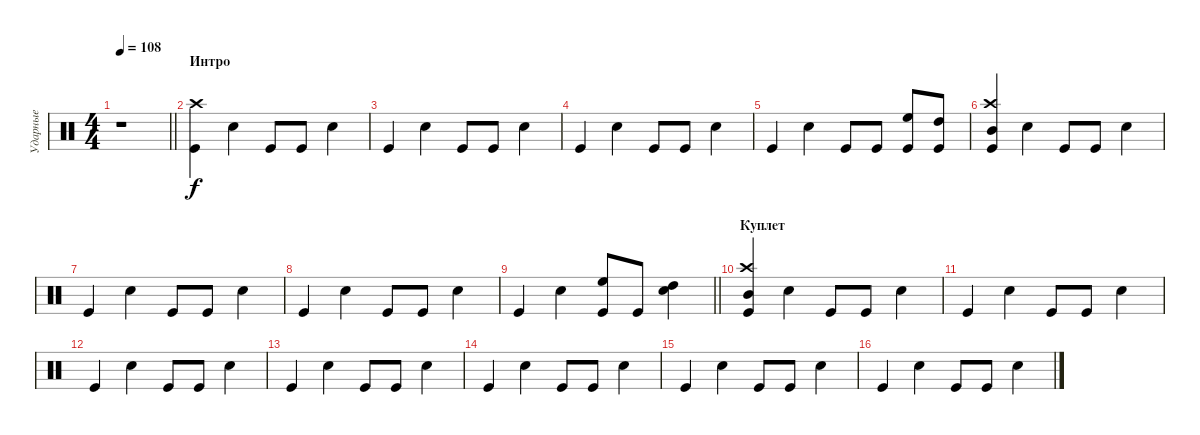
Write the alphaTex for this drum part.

\track ("Ударные" "Ударные") {instrument percussion}
\staff {score}
\articulation defaults
\ts (4 4)
\tempo 108
\clef neutral
\barLineRight lightlight
\ks c
r.1{dy f} |
\section ("" "Интро")
("Kick (hit)" "Crash high (hit)").4 "Snare (hit) 2".4 "Kick (hit)".8 "Kick (hit)".8 "Snare (hit) 2".4 |
"Kick (hit)".4 "Snare (hit) 2".4 "Kick (hit)".8 "Kick (hit)".8 "Snare (hit) 2".4 |
"Kick (hit)".4 "Snare (hit) 2".4 "Kick (hit)".8 "Kick (hit)".8 "Snare (hit) 2".4 |
"Kick (hit)".4 "Snare (hit) 2".4 "Kick (hit)".8 "Kick (hit)".8 ("Kick (hit)" "High Floor Tom (hit)").8 ("Kick (hit)" "High Tom (hit)").8 |
("Kick (hit)" "Mid Tom (hit)" "Crash high (hit)").4 "Snare (hit) 2".4 "Kick (hit)".8 "Kick (hit)".8 "Snare (hit) 2".4 |
"Kick (hit)".4 "Snare (hit) 2".4 "Kick (hit)".8 "Kick (hit)".8 "Snare (hit) 2".4 |
"Kick (hit)".4 "Snare (hit) 2".4 "Kick (hit)".8 "Kick (hit)".8 "Snare (hit) 2".4 |
\barLineRight lightlight "Kick (hit)".4 "Snare (hit) 2".4
("Kick (hit)" "High Floor Tom (hit)").8 "Kick (hit)".8 ("Snare (hit) 2" "High Tom (hit)").4 |
\section ("" "Куплет")
("Kick (hit)" "Mid Tom (hit)" "Crash high (hit)").4 "Snare (hit) 2".4 "Kick (hit)".8 "Kick (hit)".8 "Snare (hit) 2".4 |
"Kick (hit)".4 "Snare (hit) 2".4 "Kick (hit)".8 "Kick (hit)".8 "Snare (hit) 2".4 |
"Kick (hit)".4 "Snare (hit) 2".4 "Kick (hit)".8 "Kick (hit)".8 "Snare (hit) 2".4 |
"Kick (hit)".4 "Snare (hit) 2".4 "Kick (hit)".8 "Kick (hit)".8 "Snare (hit) 2".4 |
"Kick (hit)".4 "Snare (hit) 2".4 "Kick (hit)".8 "Kick (hit)".8 "Snare (hit) 2".4 |
"Kick (hit)".4 "Snare (hit) 2".4 "Kick (hit)".8 "Kick (hit)".8 "Snare (hit) 2".4 |
"Kick (hit)".4 "Snare (hit) 2".4 "Kick (hit)".8 "Kick (hit)".8 "Snare (hit) 2".4
